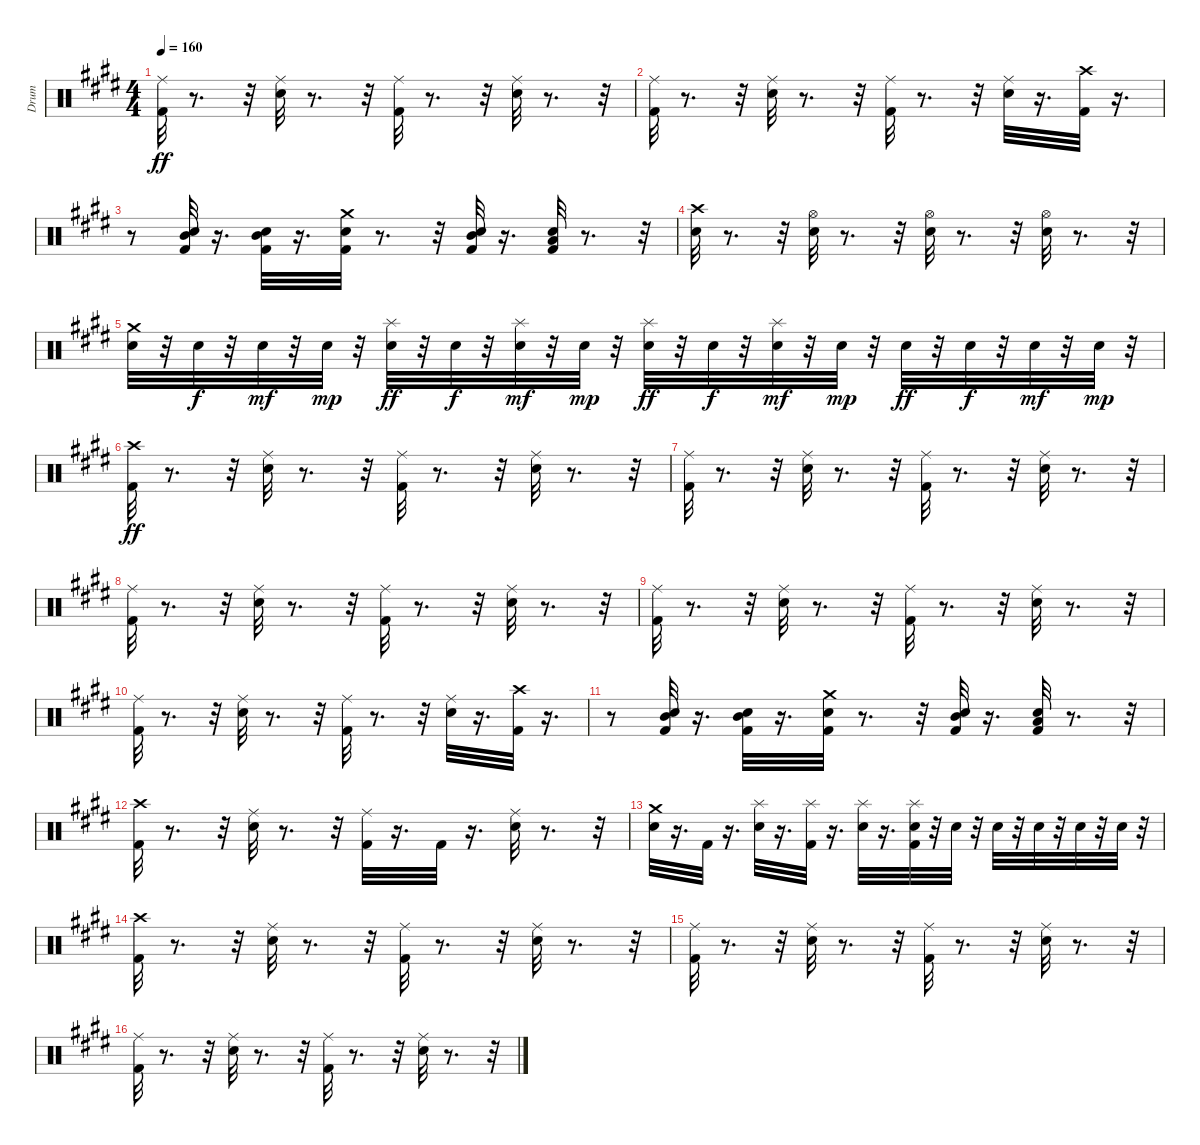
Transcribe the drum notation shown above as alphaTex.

\track ("Drum" "Drum") {instrument percussion}
\staff {score}
\articulation defaults
\ts (4 4)
\tempo 160
\clef neutral
\ks e
("Kick (hit) 2" "Ride (middle)").32{dy ff} r.8{d} r.32 ("Electric Snare (hit)" "Ride (middle)").32 r.8{d} r.32 ("Kick (hit) 2" "Ride (middle)").32 r.8{d} r.32 ("Electric Snare (hit)" "Ride (middle)").32 r.8{d} r.32 |
("Kick (hit) 2" "Ride (middle)").32 r.8{d} r.32 ("Electric Snare (hit)" "Ride (middle)").32 r.8{d} r.32 ("Kick (hit) 2" "Ride (middle)").32 r.8{d} r.32 ("Electric Snare (hit)" "Ride (middle)").32 r.16{d} ("Crash high (hit)" "Kick (hit) 2").32 r.16{d} |
r.8 ("Mid Tom (hit)" "Kick (hit) 2" "Electric Snare (hit)").32 r.16{d} ("Mid Tom (hit)" "Kick (hit) 2" "Electric Snare (hit)").32 r.16{d} ("Crash medium (hit)" "Kick (hit) 2" "Electric Snare (hit)").32 r.8{d} r.32 ("Mid Tom (hit)" "Kick (hit) 2" "Electric Snare (hit)").32 r.16{d} ("Kick (hit) 2" "Low Tom (hit)" "Electric Snare (hit)").32 r.8{d} r.32 |
("Crash high (hit)" "Electric Snare (hit)").32 r.8{d} r.32 ("Electric Snare (hit)" "Hi-Hat (open)").32 r.8{d} r.32 ("Electric Snare (hit)" "Hi-Hat (open)").32 r.8{d} r.32 ("Electric Snare (hit)" "Hi-Hat (open)").32 r.8{d} r.32 |
("Crash medium (hit)" "Electric Snare (hit)").32 r.32 "Electric Snare (hit)".32{dy f} r.32 "Electric Snare (hit)".32{dy mf} r.32 "Electric Snare (hit)".32{dy mp} r.32 ("Splash (hit)" "Electric Snare (hit)").32{dy ff} r.32 "Electric Snare (hit)".32{dy f} r.32 ("Splash (hit)" "Electric Snare (hit)").32{dy mf} r.32 "Electric Snare (hit)".32{dy mp} r.32 ("Splash (hit)" "Electric Snare (hit)").32{dy ff} r.32 "Electric Snare (hit)".32{dy f} r.32 ("Splash (hit)" "Electric Snare (hit)").32{dy mf} r.32 "Electric Snare (hit)".32{dy mp} r.32 "Electric Snare (hit)".32{dy ff} r.32 "Electric Snare (hit)".32{dy f} r.32 "Electric Snare (hit)".32{dy mf} r.32 "Electric Snare (hit)".32{dy mp} r.32 |
("Crash high (hit)" "Kick (hit) 2").32{dy ff} r.8{d} r.32 ("Electric Snare (hit)" "Ride (middle)").32 r.8{d} r.32 ("Kick (hit) 2" "Ride (middle)").32 r.8{d} r.32 ("Electric Snare (hit)" "Ride (middle)").32 r.8{d} r.32 |
("Kick (hit) 2" "Ride (middle)").32 r.8{d} r.32 ("Electric Snare (hit)" "Ride (middle)").32 r.8{d} r.32 ("Kick (hit) 2" "Ride (middle)").32 r.8{d} r.32 ("Electric Snare (hit)" "Ride (middle)").32 r.8{d} r.32 |
("Kick (hit) 2" "Ride (middle)").32 r.8{d} r.32 ("Electric Snare (hit)" "Ride (middle)").32 r.8{d} r.32 ("Kick (hit) 2" "Ride (middle)").32 r.8{d} r.32 ("Electric Snare (hit)" "Ride (middle)").32 r.8{d} r.32 |
("Kick (hit) 2" "Ride (middle)").32 r.8{d} r.32 ("Electric Snare (hit)" "Ride (middle)").32 r.8{d} r.32 ("Kick (hit) 2" "Ride (middle)").32 r.8{d} r.32 ("Electric Snare (hit)" "Ride (middle)").32 r.8{d} r.32 |
("Kick (hit) 2" "Ride (middle)").32 r.8{d} r.32 ("Electric Snare (hit)" "Ride (middle)").32 r.8{d} r.32 ("Kick (hit) 2" "Ride (middle)").32 r.8{d} r.32 ("Electric Snare (hit)" "Ride (middle)").32 r.16{d} ("Crash high (hit)" "Kick (hit) 2").32 r.16{d} |
r.8 ("Mid Tom (hit)" "Kick (hit) 2" "Electric Snare (hit)").32 r.16{d} ("Mid Tom (hit)" "Kick (hit) 2" "Electric Snare (hit)").32 r.16{d} ("Crash medium (hit)" "Kick (hit) 2" "Electric Snare (hit)").32 r.8{d} r.32 ("Mid Tom (hit)" "Kick (hit) 2" "Electric Snare (hit)").32 r.16{d} ("Kick (hit) 2" "Low Tom (hit)" "Electric Snare (hit)").32 r.8{d} r.32 |
("Crash high (hit)" "Kick (hit) 2").32 r.8{d} r.32 ("Electric Snare (hit)" "Ride (middle)").32 r.8{d} r.32 ("Kick (hit) 2" "Ride (middle)").32 r.16{d} "Kick (hit) 2".32 r.16{d} ("Electric Snare (hit)" "Ride (middle)").32 r.8{d} r.32 |
("Crash medium (hit)" "Electric Snare (hit)").32 r.16{d} "Kick (hit) 2".32 r.16{d} ("Splash (hit)" "Electric Snare (hit)").32 r.16{d} ("Splash (hit)" "Kick (hit) 2").32 r.16{d} ("Splash (hit)" "Electric Snare (hit)").32 r.16{d} ("Splash (hit)" "Kick (hit) 2" "Electric Snare (hit)").32 r.32 "Electric Snare (hit)".32 r.32 "Electric Snare (hit)".32 r.32 "Electric Snare (hit)".32 r.32 "Electric Snare (hit)".32 r.32 "Electric Snare (hit)".32 r.32 |
("Crash high (hit)" "Kick (hit) 2").32 r.8{d} r.32 ("Electric Snare (hit)" "Ride (middle)").32 r.8{d} r.32 ("Kick (hit) 2" "Ride (middle)").32 r.8{d} r.32 ("Electric Snare (hit)" "Ride (middle)").32 r.8{d} r.32 |
("Kick (hit) 2" "Ride (middle)").32 r.8{d} r.32 ("Electric Snare (hit)" "Ride (middle)").32 r.8{d} r.32 ("Kick (hit) 2" "Ride (middle)").32 r.8{d} r.32 ("Electric Snare (hit)" "Ride (middle)").32 r.8{d} r.32 |
("Kick (hit) 2" "Ride (middle)").32 r.8{d} r.32 ("Electric Snare (hit)" "Ride (middle)").32 r.8{d} r.32 ("Kick (hit) 2" "Ride (middle)").32 r.8{d} r.32 ("Electric Snare (hit)" "Ride (middle)").32 r.8{d} r.32
